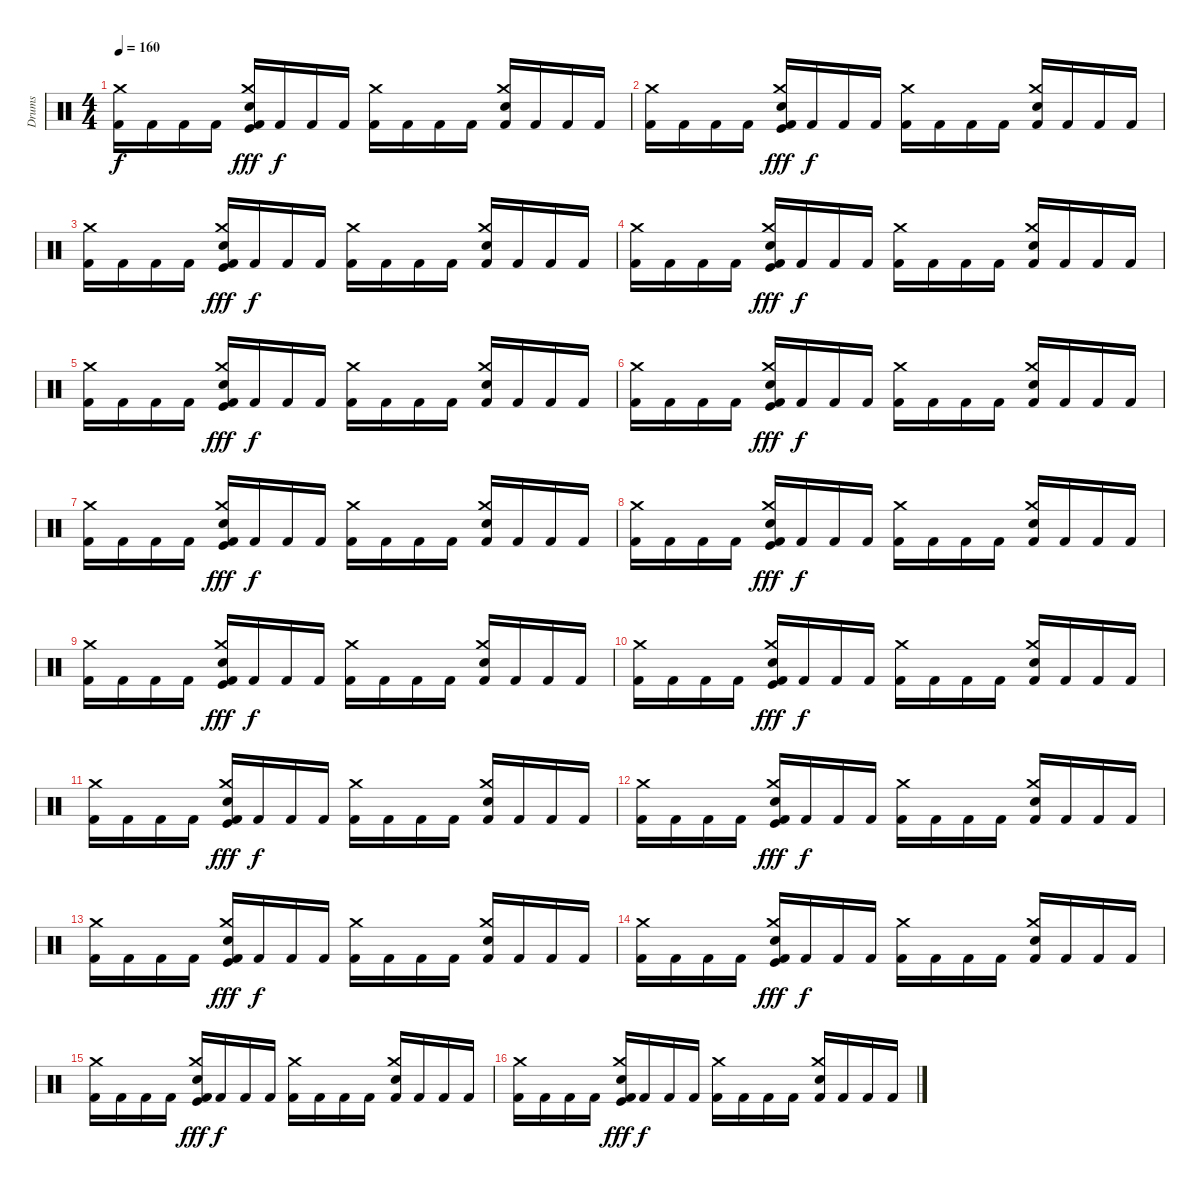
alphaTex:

\track ("Drums" "Drums") {instrument percussion}
\staff {score}
\articulation defaults
\ts (4 4)
\tempo 160
\clef neutral
\ks c
("Kick (hit) 2" "Crash medium (hit)").16{dy f} "Kick (hit) 2".16 "Kick (hit) 2".16 "Kick (hit) 2".16 ("Kick (hit) 2" "Snare (hit) 2" "Kick (hit)" "Crash medium (hit)").16{dy fff} "Kick (hit) 2".16{dy f} "Kick (hit) 2".16 "Kick (hit) 2".16 ("Kick (hit) 2" "Crash medium (hit)").16 "Kick (hit) 2".16 "Kick (hit) 2".16 "Kick (hit) 2".16 ("Kick (hit) 2" "Snare (hit) 2" "Crash medium (hit)").16 "Kick (hit) 2".16 "Kick (hit) 2".16 "Kick (hit) 2".16 |
("Kick (hit) 2" "Crash medium (hit)").16 "Kick (hit) 2".16 "Kick (hit) 2".16 "Kick (hit) 2".16 ("Kick (hit) 2" "Snare (hit) 2" "Kick (hit)" "Crash medium (hit)").16{dy fff} "Kick (hit) 2".16{dy f} "Kick (hit) 2".16 "Kick (hit) 2".16 ("Kick (hit) 2" "Crash medium (hit)").16 "Kick (hit) 2".16 "Kick (hit) 2".16 "Kick (hit) 2".16 ("Kick (hit) 2" "Snare (hit) 2" "Crash medium (hit)").16 "Kick (hit) 2".16 "Kick (hit) 2".16 "Kick (hit) 2".16 |
("Kick (hit) 2" "Crash medium (hit)").16 "Kick (hit) 2".16 "Kick (hit) 2".16 "Kick (hit) 2".16 ("Kick (hit) 2" "Snare (hit) 2" "Kick (hit)" "Crash medium (hit)").16{dy fff} "Kick (hit) 2".16{dy f} "Kick (hit) 2".16 "Kick (hit) 2".16 ("Kick (hit) 2" "Crash medium (hit)").16 "Kick (hit) 2".16 "Kick (hit) 2".16 "Kick (hit) 2".16 ("Kick (hit) 2" "Snare (hit) 2" "Crash medium (hit)").16 "Kick (hit) 2".16 "Kick (hit) 2".16 "Kick (hit) 2".16 |
("Kick (hit) 2" "Crash medium (hit)").16 "Kick (hit) 2".16 "Kick (hit) 2".16 "Kick (hit) 2".16 ("Kick (hit) 2" "Snare (hit) 2" "Kick (hit)" "Crash medium (hit)").16{dy fff} "Kick (hit) 2".16{dy f} "Kick (hit) 2".16 "Kick (hit) 2".16 ("Kick (hit) 2" "Crash medium (hit)").16 "Kick (hit) 2".16 "Kick (hit) 2".16 "Kick (hit) 2".16 ("Kick (hit) 2" "Snare (hit) 2" "Crash medium (hit)").16 "Kick (hit) 2".16 "Kick (hit) 2".16 "Kick (hit) 2".16 |
("Kick (hit) 2" "Crash medium (hit)").16 "Kick (hit) 2".16 "Kick (hit) 2".16 "Kick (hit) 2".16 ("Kick (hit) 2" "Snare (hit) 2" "Kick (hit)" "Crash medium (hit)").16{dy fff} "Kick (hit) 2".16{dy f} "Kick (hit) 2".16 "Kick (hit) 2".16 ("Kick (hit) 2" "Crash medium (hit)").16 "Kick (hit) 2".16 "Kick (hit) 2".16 "Kick (hit) 2".16 ("Kick (hit) 2" "Snare (hit) 2" "Crash medium (hit)").16 "Kick (hit) 2".16 "Kick (hit) 2".16 "Kick (hit) 2".16 |
("Kick (hit) 2" "Crash medium (hit)").16 "Kick (hit) 2".16 "Kick (hit) 2".16 "Kick (hit) 2".16 ("Kick (hit) 2" "Snare (hit) 2" "Kick (hit)" "Crash medium (hit)").16{dy fff} "Kick (hit) 2".16{dy f} "Kick (hit) 2".16 "Kick (hit) 2".16 ("Kick (hit) 2" "Crash medium (hit)").16 "Kick (hit) 2".16 "Kick (hit) 2".16 "Kick (hit) 2".16 ("Kick (hit) 2" "Snare (hit) 2" "Crash medium (hit)").16 "Kick (hit) 2".16 "Kick (hit) 2".16 "Kick (hit) 2".16 |
("Kick (hit) 2" "Crash medium (hit)").16 "Kick (hit) 2".16 "Kick (hit) 2".16 "Kick (hit) 2".16 ("Kick (hit) 2" "Snare (hit) 2" "Kick (hit)" "Crash medium (hit)").16{dy fff} "Kick (hit) 2".16{dy f} "Kick (hit) 2".16 "Kick (hit) 2".16 ("Kick (hit) 2" "Crash medium (hit)").16 "Kick (hit) 2".16 "Kick (hit) 2".16 "Kick (hit) 2".16 ("Kick (hit) 2" "Snare (hit) 2" "Crash medium (hit)").16 "Kick (hit) 2".16 "Kick (hit) 2".16 "Kick (hit) 2".16 |
("Kick (hit) 2" "Crash medium (hit)").16 "Kick (hit) 2".16 "Kick (hit) 2".16 "Kick (hit) 2".16 ("Kick (hit) 2" "Snare (hit) 2" "Kick (hit)" "Crash medium (hit)").16{dy fff} "Kick (hit) 2".16{dy f} "Kick (hit) 2".16 "Kick (hit) 2".16 ("Kick (hit) 2" "Crash medium (hit)").16 "Kick (hit) 2".16 "Kick (hit) 2".16 "Kick (hit) 2".16 ("Kick (hit) 2" "Snare (hit) 2" "Crash medium (hit)").16 "Kick (hit) 2".16 "Kick (hit) 2".16 "Kick (hit) 2".16 |
("Kick (hit) 2" "Crash medium (hit)").16 "Kick (hit) 2".16 "Kick (hit) 2".16 "Kick (hit) 2".16 ("Kick (hit) 2" "Snare (hit) 2" "Kick (hit)" "Crash medium (hit)").16{dy fff} "Kick (hit) 2".16{dy f} "Kick (hit) 2".16 "Kick (hit) 2".16 ("Kick (hit) 2" "Crash medium (hit)").16 "Kick (hit) 2".16 "Kick (hit) 2".16 "Kick (hit) 2".16 ("Kick (hit) 2" "Snare (hit) 2" "Crash medium (hit)").16 "Kick (hit) 2".16 "Kick (hit) 2".16 "Kick (hit) 2".16 |
("Kick (hit) 2" "Crash medium (hit)").16 "Kick (hit) 2".16 "Kick (hit) 2".16 "Kick (hit) 2".16 ("Kick (hit) 2" "Snare (hit) 2" "Kick (hit)" "Crash medium (hit)").16{dy fff} "Kick (hit) 2".16{dy f} "Kick (hit) 2".16 "Kick (hit) 2".16 ("Kick (hit) 2" "Crash medium (hit)").16 "Kick (hit) 2".16 "Kick (hit) 2".16 "Kick (hit) 2".16 ("Kick (hit) 2" "Snare (hit) 2" "Crash medium (hit)").16 "Kick (hit) 2".16 "Kick (hit) 2".16 "Kick (hit) 2".16 |
("Kick (hit) 2" "Crash medium (hit)").16 "Kick (hit) 2".16 "Kick (hit) 2".16 "Kick (hit) 2".16 ("Kick (hit) 2" "Snare (hit) 2" "Kick (hit)" "Crash medium (hit)").16{dy fff} "Kick (hit) 2".16{dy f} "Kick (hit) 2".16 "Kick (hit) 2".16 ("Kick (hit) 2" "Crash medium (hit)").16 "Kick (hit) 2".16 "Kick (hit) 2".16 "Kick (hit) 2".16 ("Kick (hit) 2" "Snare (hit) 2" "Crash medium (hit)").16 "Kick (hit) 2".16 "Kick (hit) 2".16 "Kick (hit) 2".16 |
("Kick (hit) 2" "Crash medium (hit)").16 "Kick (hit) 2".16 "Kick (hit) 2".16 "Kick (hit) 2".16 ("Kick (hit) 2" "Snare (hit) 2" "Kick (hit)" "Crash medium (hit)").16{dy fff} "Kick (hit) 2".16{dy f} "Kick (hit) 2".16 "Kick (hit) 2".16 ("Kick (hit) 2" "Crash medium (hit)").16 "Kick (hit) 2".16 "Kick (hit) 2".16 "Kick (hit) 2".16 ("Kick (hit) 2" "Snare (hit) 2" "Crash medium (hit)").16 "Kick (hit) 2".16 "Kick (hit) 2".16 "Kick (hit) 2".16 |
("Kick (hit) 2" "Crash medium (hit)").16 "Kick (hit) 2".16 "Kick (hit) 2".16 "Kick (hit) 2".16 ("Kick (hit) 2" "Snare (hit) 2" "Kick (hit)" "Crash medium (hit)").16{dy fff} "Kick (hit) 2".16{dy f} "Kick (hit) 2".16 "Kick (hit) 2".16 ("Kick (hit) 2" "Crash medium (hit)").16 "Kick (hit) 2".16 "Kick (hit) 2".16 "Kick (hit) 2".16 ("Kick (hit) 2" "Snare (hit) 2" "Crash medium (hit)").16 "Kick (hit) 2".16 "Kick (hit) 2".16 "Kick (hit) 2".16 |
("Kick (hit) 2" "Crash medium (hit)").16 "Kick (hit) 2".16 "Kick (hit) 2".16 "Kick (hit) 2".16 ("Kick (hit) 2" "Snare (hit) 2" "Kick (hit)" "Crash medium (hit)").16{dy fff} "Kick (hit) 2".16{dy f} "Kick (hit) 2".16 "Kick (hit) 2".16 ("Kick (hit) 2" "Crash medium (hit)").16 "Kick (hit) 2".16 "Kick (hit) 2".16 "Kick (hit) 2".16 ("Kick (hit) 2" "Snare (hit) 2" "Crash medium (hit)").16 "Kick (hit) 2".16 "Kick (hit) 2".16 "Kick (hit) 2".16 |
("Kick (hit) 2" "Crash medium (hit)").16 "Kick (hit) 2".16 "Kick (hit) 2".16 "Kick (hit) 2".16 ("Kick (hit) 2" "Snare (hit) 2" "Kick (hit)" "Crash medium (hit)").16{dy fff} "Kick (hit) 2".16{dy f} "Kick (hit) 2".16 "Kick (hit) 2".16 ("Kick (hit) 2" "Crash medium (hit)").16 "Kick (hit) 2".16 "Kick (hit) 2".16 "Kick (hit) 2".16 ("Kick (hit) 2" "Snare (hit) 2" "Crash medium (hit)").16 "Kick (hit) 2".16 "Kick (hit) 2".16 "Kick (hit) 2".16 |
("Kick (hit) 2" "Crash medium (hit)").16 "Kick (hit) 2".16 "Kick (hit) 2".16 "Kick (hit) 2".16 ("Kick (hit) 2" "Snare (hit) 2" "Kick (hit)" "Crash medium (hit)").16{dy fff} "Kick (hit) 2".16{dy f} "Kick (hit) 2".16 "Kick (hit) 2".16 ("Kick (hit) 2" "Crash medium (hit)").16 "Kick (hit) 2".16 "Kick (hit) 2".16 "Kick (hit) 2".16 ("Kick (hit) 2" "Snare (hit) 2" "Crash medium (hit)").16 "Kick (hit) 2".16 "Kick (hit) 2".16 "Kick (hit) 2".16
